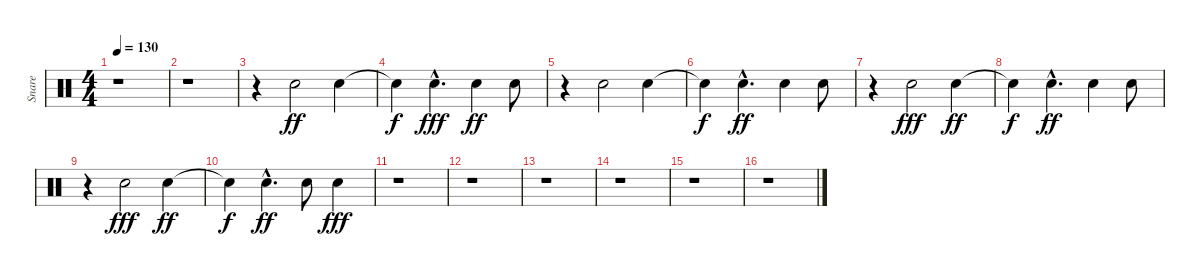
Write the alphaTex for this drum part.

\track ("Snare" "Snare") {instrument percussion}
\staff {score}
\articulation defaults
\ts (4 4)
\tempo 130
\clef neutral
\ks c
r.1{dy ff} |
r.1 |
r.4 "Snare (hit) 2".2 "Snare (hit) 2".4 |
"Snare (hit)"{t}.4{dy f} "Snare (hit) 2"{hac}.4{d dy fff} "Snare (hit) 2".4{dy ff} "Snare (hit) 2".8 |
r.4 "Snare (hit) 2".2 "Snare (hit) 2".4 |
"Snare (hit)"{t}.4{dy f} "Snare (hit) 2"{hac}.4{d dy ff} "Snare (hit) 2".4 "Snare (hit) 2".8 |
r.4 "Snare (hit) 2".2{dy fff} "Snare (hit) 2".4{dy ff} |
"Snare (hit)"{t}.4{dy f} "Snare (hit) 2"{hac}.4{d dy ff} "Snare (hit) 2".4 "Snare (hit) 2".8 |
r.4 "Snare (hit) 2".2{dy fff} "Snare (hit) 2".4{dy ff} |
"Snare (hit)"{t}.4{dy f} "Snare (hit) 2"{hac}.4{d dy ff} "Snare (hit) 2".8 "Snare (hit) 2".4{dy fff} |
r.1 |
r.1 |
r.1 |
r.1 |
r.1 |
r.1
